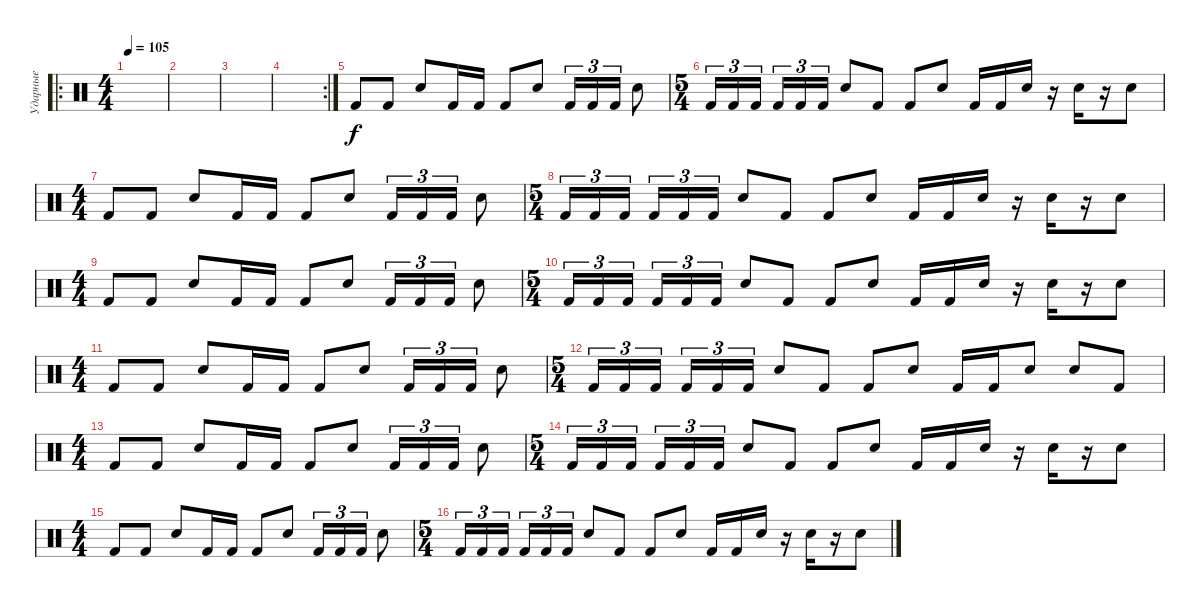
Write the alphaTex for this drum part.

\track ("Ударные" "Ударные") {instrument percussion}
\staff {score}
\articulation defaults
\ro
\ts (4 4)
\tempo 105
\clef neutral
\ks c
|
|
|
\rc 2
|
"Kick (hit) 2".8{volume 0} "Kick (hit) 2".8 "Electric Snare (hit)".8 "Kick (hit) 2".16 "Kick (hit) 2".16 "Kick (hit) 2".8 "Electric Snare (hit)".8 "Kick (hit) 2".16{tu (3 2)} "Kick (hit) 2".16{tu (3 2)} "Kick (hit) 2".16{tu (3 2)} "Electric Snare (hit)".8 |
\ts (5 4)
"Kick (hit) 2".16{tu (3 2) volume 13} "Kick (hit) 2".16{tu (3 2)} "Kick (hit) 2".16{tu (3 2)} "Kick (hit) 2".16{tu (3 2)} "Kick (hit) 2".16{tu (3 2)} "Kick (hit) 2".16{tu (3 2)} "Electric Snare (hit)".8 "Kick (hit) 2".8 "Kick (hit) 2".8 "Electric Snare (hit)".8 "Kick (hit) 2".16 "Kick (hit) 2".16 "Electric Snare (hit)".16 r.16 "Electric Snare (hit)".16 r.16 "Electric Snare (hit)".8 |
\ts (4 4)
"Kick (hit) 2".8 "Kick (hit) 2".8 "Electric Snare (hit)".8 "Kick (hit) 2".16 "Kick (hit) 2".16 "Kick (hit) 2".8 "Electric Snare (hit)".8 "Kick (hit) 2".16{tu (3 2)} "Kick (hit) 2".16{tu (3 2)} "Kick (hit) 2".16{tu (3 2)} "Electric Snare (hit)".8 |
\ts (5 4)
"Kick (hit) 2".16{tu (3 2)} "Kick (hit) 2".16{tu (3 2)} "Kick (hit) 2".16{tu (3 2)} "Kick (hit) 2".16{tu (3 2)} "Kick (hit) 2".16{tu (3 2)} "Kick (hit) 2".16{tu (3 2)} "Electric Snare (hit)".8 "Kick (hit) 2".8 "Kick (hit) 2".8 "Electric Snare (hit)".8 "Kick (hit) 2".16 "Kick (hit) 2".16 "Electric Snare (hit)".16 r.16 "Electric Snare (hit)".16 r.16 "Electric Snare (hit)".8 |
\ts (4 4)
"Kick (hit) 2".8 "Kick (hit) 2".8 "Electric Snare (hit)".8 "Kick (hit) 2".16 "Kick (hit) 2".16 "Kick (hit) 2".8 "Electric Snare (hit)".8 "Kick (hit) 2".16{tu (3 2)} "Kick (hit) 2".16{tu (3 2)} "Kick (hit) 2".16{tu (3 2)} "Electric Snare (hit)".8 |
\ts (5 4)
"Kick (hit) 2".16{tu (3 2)} "Kick (hit) 2".16{tu (3 2)} "Kick (hit) 2".16{tu (3 2)} "Kick (hit) 2".16{tu (3 2)} "Kick (hit) 2".16{tu (3 2)} "Kick (hit) 2".16{tu (3 2)} "Electric Snare (hit)".8 "Kick (hit) 2".8 "Kick (hit) 2".8 "Electric Snare (hit)".8 "Kick (hit) 2".16 "Kick (hit) 2".16 "Electric Snare (hit)".16 r.16 "Electric Snare (hit)".16 r.16 "Electric Snare (hit)".8 |
\ts (4 4)
"Kick (hit) 2".8 "Kick (hit) 2".8 "Electric Snare (hit)".8 "Kick (hit) 2".16 "Kick (hit) 2".16 "Kick (hit) 2".8 "Electric Snare (hit)".8 "Kick (hit) 2".16{tu (3 2)} "Kick (hit) 2".16{tu (3 2)} "Kick (hit) 2".16{tu (3 2)} "Electric Snare (hit)".8 |
\ts (5 4)
"Kick (hit) 2".16{tu (3 2)} "Kick (hit) 2".16{tu (3 2)} "Kick (hit) 2".16{tu (3 2)} "Kick (hit) 2".16{tu (3 2)} "Kick (hit) 2".16{tu (3 2)} "Kick (hit) 2".16{tu (3 2)} "Electric Snare (hit)".8 "Kick (hit) 2".8 "Kick (hit) 2".8 "Electric Snare (hit)".8 "Kick (hit) 2".16 "Kick (hit) 2".16 "Electric Snare (hit)".8 "Electric Snare (hit)".8 "Kick (hit) 2".8 |
\ts (4 4)
"Kick (hit) 2".8 "Kick (hit) 2".8 "Electric Snare (hit)".8 "Kick (hit) 2".16 "Kick (hit) 2".16 "Kick (hit) 2".8 "Electric Snare (hit)".8 "Kick (hit) 2".16{tu (3 2)} "Kick (hit) 2".16{tu (3 2)} "Kick (hit) 2".16{tu (3 2)} "Electric Snare (hit)".8 |
\ts (5 4)
"Kick (hit) 2".16{tu (3 2)} "Kick (hit) 2".16{tu (3 2)} "Kick (hit) 2".16{tu (3 2)} "Kick (hit) 2".16{tu (3 2)} "Kick (hit) 2".16{tu (3 2)} "Kick (hit) 2".16{tu (3 2)} "Electric Snare (hit)".8 "Kick (hit) 2".8 "Kick (hit) 2".8 "Electric Snare (hit)".8 "Kick (hit) 2".16 "Kick (hit) 2".16 "Electric Snare (hit)".16 r.16 "Electric Snare (hit)".16 r.16 "Electric Snare (hit)".8 |
\ts (4 4)
"Kick (hit) 2".8 "Kick (hit) 2".8 "Electric Snare (hit)".8 "Kick (hit) 2".16 "Kick (hit) 2".16 "Kick (hit) 2".8 "Electric Snare (hit)".8 "Kick (hit) 2".16{tu (3 2)} "Kick (hit) 2".16{tu (3 2)} "Kick (hit) 2".16{tu (3 2)} "Electric Snare (hit)".8 |
\ts (5 4)
"Kick (hit) 2".16{tu (3 2)} "Kick (hit) 2".16{tu (3 2)} "Kick (hit) 2".16{tu (3 2)} "Kick (hit) 2".16{tu (3 2)} "Kick (hit) 2".16{tu (3 2)} "Kick (hit) 2".16{tu (3 2)} "Electric Snare (hit)".8 "Kick (hit) 2".8 "Kick (hit) 2".8 "Electric Snare (hit)".8 "Kick (hit) 2".16 "Kick (hit) 2".16 "Electric Snare (hit)".16 r.16 "Electric Snare (hit)".16 r.16 "Electric Snare (hit)".8
